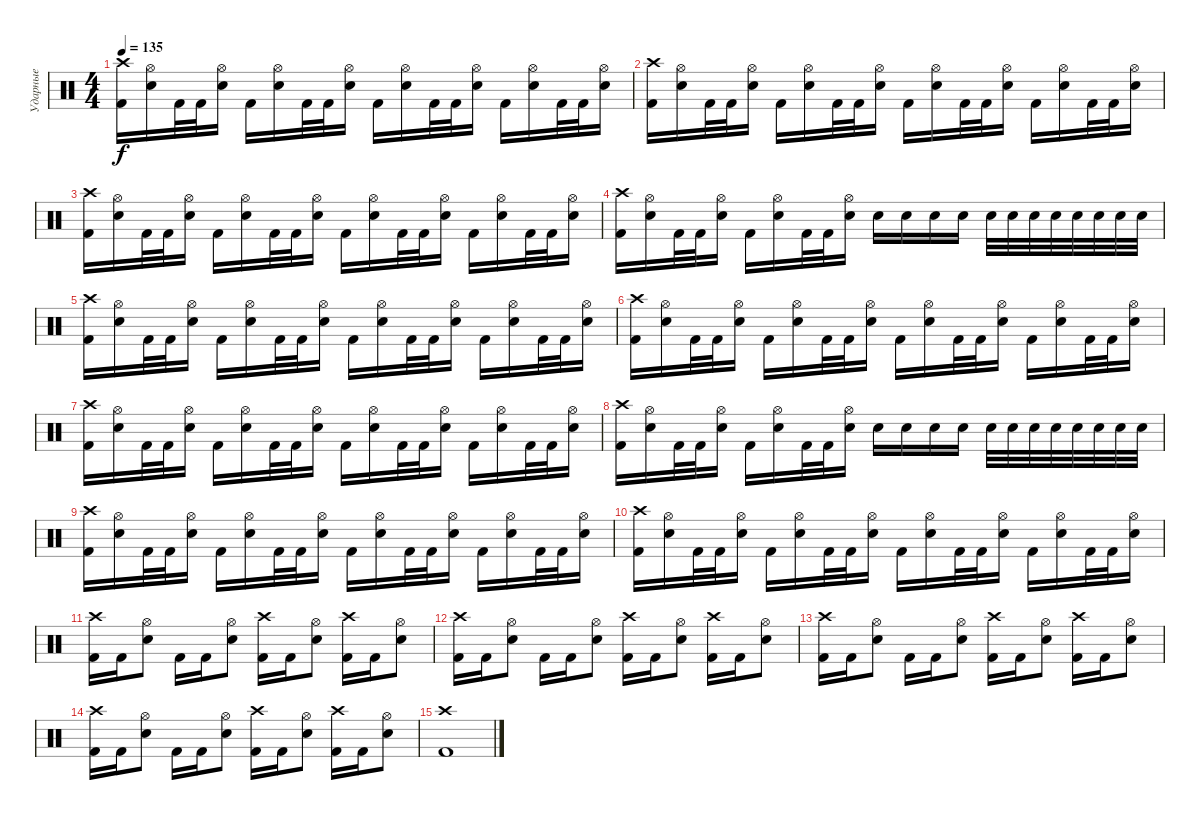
\track ("Ударные" "Ударные") {instrument percussion}
\staff {score}
\articulation defaults
\ts (4 4)
\tempo 135
\clef neutral
\ks c
("Kick (hit) 2" "Crash high (hit)").16{dy f} ("Electric Snare (hit)" "Hi-Hat (open)").16 "Kick (hit) 2".32 "Kick (hit) 2".32 ("Electric Snare (hit)" "Hi-Hat (open)").16 "Kick (hit) 2".16 ("Electric Snare (hit)" "Hi-Hat (open)").16 "Kick (hit) 2".32 "Kick (hit) 2".32 ("Electric Snare (hit)" "Hi-Hat (open)").16 "Kick (hit) 2".16 ("Electric Snare (hit)" "Hi-Hat (open)").16 "Kick (hit) 2".32 "Kick (hit) 2".32 ("Electric Snare (hit)" "Hi-Hat (open)").16 "Kick (hit) 2".16 ("Electric Snare (hit)" "Hi-Hat (open)").16 "Kick (hit) 2".32 "Kick (hit) 2".32 ("Electric Snare (hit)" "Hi-Hat (open)").16 |
("Kick (hit) 2" "Crash high (hit)").16 ("Electric Snare (hit)" "Hi-Hat (open)").16 "Kick (hit) 2".32 "Kick (hit) 2".32 ("Electric Snare (hit)" "Hi-Hat (open)").16 "Kick (hit) 2".16 ("Electric Snare (hit)" "Hi-Hat (open)").16 "Kick (hit) 2".32 "Kick (hit) 2".32 ("Electric Snare (hit)" "Hi-Hat (open)").16 "Kick (hit) 2".16 ("Electric Snare (hit)" "Hi-Hat (open)").16 "Kick (hit) 2".32 "Kick (hit) 2".32 ("Electric Snare (hit)" "Hi-Hat (open)").16 "Kick (hit) 2".16 ("Electric Snare (hit)" "Hi-Hat (open)").16 "Kick (hit) 2".32 "Kick (hit) 2".32 ("Electric Snare (hit)" "Hi-Hat (open)").16 |
("Kick (hit) 2" "Crash high (hit)").16 ("Electric Snare (hit)" "Hi-Hat (open)").16 "Kick (hit) 2".32 "Kick (hit) 2".32 ("Electric Snare (hit)" "Hi-Hat (open)").16 "Kick (hit) 2".16 ("Electric Snare (hit)" "Hi-Hat (open)").16 "Kick (hit) 2".32 "Kick (hit) 2".32 ("Electric Snare (hit)" "Hi-Hat (open)").16 "Kick (hit) 2".16 ("Electric Snare (hit)" "Hi-Hat (open)").16 "Kick (hit) 2".32 "Kick (hit) 2".32 ("Electric Snare (hit)" "Hi-Hat (open)").16 "Kick (hit) 2".16 ("Electric Snare (hit)" "Hi-Hat (open)").16 "Kick (hit) 2".32 "Kick (hit) 2".32 ("Electric Snare (hit)" "Hi-Hat (open)").16 |
("Kick (hit) 2" "Crash high (hit)").16 ("Electric Snare (hit)" "Hi-Hat (open)").16 "Kick (hit) 2".32 "Kick (hit) 2".32 ("Electric Snare (hit)" "Hi-Hat (open)").16 "Kick (hit) 2".16 ("Electric Snare (hit)" "Hi-Hat (open)").16 "Kick (hit) 2".32 "Kick (hit) 2".32 ("Electric Snare (hit)" "Hi-Hat (open)").16 "Electric Snare (hit)".16 "Electric Snare (hit)".16 "Electric Snare (hit)".16 "Electric Snare (hit)".16 "Electric Snare (hit)".32 "Electric Snare (hit)".32 "Electric Snare (hit)".32 "Electric Snare (hit)".32 "Electric Snare (hit)".32 "Electric Snare (hit)".32 "Electric Snare (hit)".32 "Electric Snare (hit)".32 |
("Kick (hit) 2" "Crash high (hit)").16 ("Electric Snare (hit)" "Hi-Hat (open)").16 "Kick (hit) 2".32 "Kick (hit) 2".32 ("Electric Snare (hit)" "Hi-Hat (open)").16 "Kick (hit) 2".16 ("Electric Snare (hit)" "Hi-Hat (open)").16 "Kick (hit) 2".32 "Kick (hit) 2".32 ("Electric Snare (hit)" "Hi-Hat (open)").16 "Kick (hit) 2".16 ("Electric Snare (hit)" "Hi-Hat (open)").16 "Kick (hit) 2".32 "Kick (hit) 2".32 ("Electric Snare (hit)" "Hi-Hat (open)").16 "Kick (hit) 2".16 ("Electric Snare (hit)" "Hi-Hat (open)").16 "Kick (hit) 2".32 "Kick (hit) 2".32 ("Electric Snare (hit)" "Hi-Hat (open)").16 |
("Kick (hit) 2" "Crash high (hit)").16 ("Electric Snare (hit)" "Hi-Hat (open)").16 "Kick (hit) 2".32 "Kick (hit) 2".32 ("Electric Snare (hit)" "Hi-Hat (open)").16 "Kick (hit) 2".16 ("Electric Snare (hit)" "Hi-Hat (open)").16 "Kick (hit) 2".32 "Kick (hit) 2".32 ("Electric Snare (hit)" "Hi-Hat (open)").16 "Kick (hit) 2".16 ("Electric Snare (hit)" "Hi-Hat (open)").16 "Kick (hit) 2".32 "Kick (hit) 2".32 ("Electric Snare (hit)" "Hi-Hat (open)").16 "Kick (hit) 2".16 ("Electric Snare (hit)" "Hi-Hat (open)").16 "Kick (hit) 2".32 "Kick (hit) 2".32 ("Electric Snare (hit)" "Hi-Hat (open)").16 |
("Kick (hit) 2" "Crash high (hit)").16 ("Electric Snare (hit)" "Hi-Hat (open)").16 "Kick (hit) 2".32 "Kick (hit) 2".32 ("Electric Snare (hit)" "Hi-Hat (open)").16 "Kick (hit) 2".16 ("Electric Snare (hit)" "Hi-Hat (open)").16 "Kick (hit) 2".32 "Kick (hit) 2".32 ("Electric Snare (hit)" "Hi-Hat (open)").16 "Kick (hit) 2".16 ("Electric Snare (hit)" "Hi-Hat (open)").16 "Kick (hit) 2".32 "Kick (hit) 2".32 ("Electric Snare (hit)" "Hi-Hat (open)").16 "Kick (hit) 2".16 ("Electric Snare (hit)" "Hi-Hat (open)").16 "Kick (hit) 2".32 "Kick (hit) 2".32 ("Electric Snare (hit)" "Hi-Hat (open)").16 |
("Kick (hit) 2" "Crash high (hit)").16 ("Electric Snare (hit)" "Hi-Hat (open)").16 "Kick (hit) 2".32 "Kick (hit) 2".32 ("Electric Snare (hit)" "Hi-Hat (open)").16 "Kick (hit) 2".16 ("Electric Snare (hit)" "Hi-Hat (open)").16 "Kick (hit) 2".32 "Kick (hit) 2".32 ("Electric Snare (hit)" "Hi-Hat (open)").16 "Electric Snare (hit)".16 "Electric Snare (hit)".16 "Electric Snare (hit)".16 "Electric Snare (hit)".16 "Electric Snare (hit)".32 "Electric Snare (hit)".32 "Electric Snare (hit)".32 "Electric Snare (hit)".32 "Electric Snare (hit)".32 "Electric Snare (hit)".32 "Electric Snare (hit)".32 "Electric Snare (hit)".32 |
("Kick (hit) 2" "Crash high (hit)").16 ("Electric Snare (hit)" "Hi-Hat (open)").16 "Kick (hit) 2".32 "Kick (hit) 2".32 ("Electric Snare (hit)" "Hi-Hat (open)").16 "Kick (hit) 2".16 ("Electric Snare (hit)" "Hi-Hat (open)").16 "Kick (hit) 2".32 "Kick (hit) 2".32 ("Electric Snare (hit)" "Hi-Hat (open)").16 "Kick (hit) 2".16 ("Electric Snare (hit)" "Hi-Hat (open)").16 "Kick (hit) 2".32 "Kick (hit) 2".32 ("Electric Snare (hit)" "Hi-Hat (open)").16 "Kick (hit) 2".16 ("Electric Snare (hit)" "Hi-Hat (open)").16 "Kick (hit) 2".32 "Kick (hit) 2".32 ("Electric Snare (hit)" "Hi-Hat (open)").16 |
("Kick (hit) 2" "Crash high (hit)").16 ("Electric Snare (hit)" "Hi-Hat (open)").16 "Kick (hit) 2".32 "Kick (hit) 2".32 ("Electric Snare (hit)" "Hi-Hat (open)").16 "Kick (hit) 2".16 ("Electric Snare (hit)" "Hi-Hat (open)").16 "Kick (hit) 2".32 "Kick (hit) 2".32 ("Electric Snare (hit)" "Hi-Hat (open)").16 "Kick (hit) 2".16 ("Electric Snare (hit)" "Hi-Hat (open)").16 "Kick (hit) 2".32 "Kick (hit) 2".32 ("Electric Snare (hit)" "Hi-Hat (open)").16 "Kick (hit) 2".16 ("Electric Snare (hit)" "Hi-Hat (open)").16 "Kick (hit) 2".32 "Kick (hit) 2".32 ("Electric Snare (hit)" "Hi-Hat (open)").16 |
("Kick (hit) 2" "Crash high (hit)").16 "Kick (hit) 2".16 ("Electric Snare (hit)" "Hi-Hat (open)").8 "Kick (hit) 2".16 "Kick (hit) 2".16 ("Electric Snare (hit)" "Hi-Hat (open)").8 ("Kick (hit) 2" "Crash high (hit)").16 "Kick (hit) 2".16 ("Electric Snare (hit)" "Hi-Hat (open)").8 ("Kick (hit) 2" "Crash high (hit)").16 "Kick (hit) 2".16 ("Electric Snare (hit)" "Hi-Hat (open)").8 |
("Kick (hit) 2" "Crash high (hit)").16 "Kick (hit) 2".16 ("Electric Snare (hit)" "Hi-Hat (open)").8 "Kick (hit) 2".16 "Kick (hit) 2".16 ("Electric Snare (hit)" "Hi-Hat (open)").8 ("Kick (hit) 2" "Crash high (hit)").16 "Kick (hit) 2".16 ("Electric Snare (hit)" "Hi-Hat (open)").8 ("Kick (hit) 2" "Crash high (hit)").16 "Kick (hit) 2".16 ("Electric Snare (hit)" "Hi-Hat (open)").8 |
("Kick (hit) 2" "Crash high (hit)").16 "Kick (hit) 2".16 ("Electric Snare (hit)" "Hi-Hat (open)").8 "Kick (hit) 2".16 "Kick (hit) 2".16 ("Electric Snare (hit)" "Hi-Hat (open)").8 ("Kick (hit) 2" "Crash high (hit)").16 "Kick (hit) 2".16 ("Electric Snare (hit)" "Hi-Hat (open)").8 ("Kick (hit) 2" "Crash high (hit)").16 "Kick (hit) 2".16 ("Electric Snare (hit)" "Hi-Hat (open)").8 |
("Kick (hit) 2" "Crash high (hit)").16 "Kick (hit) 2".16 ("Electric Snare (hit)" "Hi-Hat (open)").8 "Kick (hit) 2".16 "Kick (hit) 2".16 ("Electric Snare (hit)" "Hi-Hat (open)").8 ("Kick (hit) 2" "Crash high (hit)").16 "Kick (hit) 2".16 ("Electric Snare (hit)" "Hi-Hat (open)").8 ("Kick (hit) 2" "Crash high (hit)").16 "Kick (hit) 2".16 ("Electric Snare (hit)" "Hi-Hat (open)").8 |
("Crash high (hit)" "Kick (hit) 2").1
